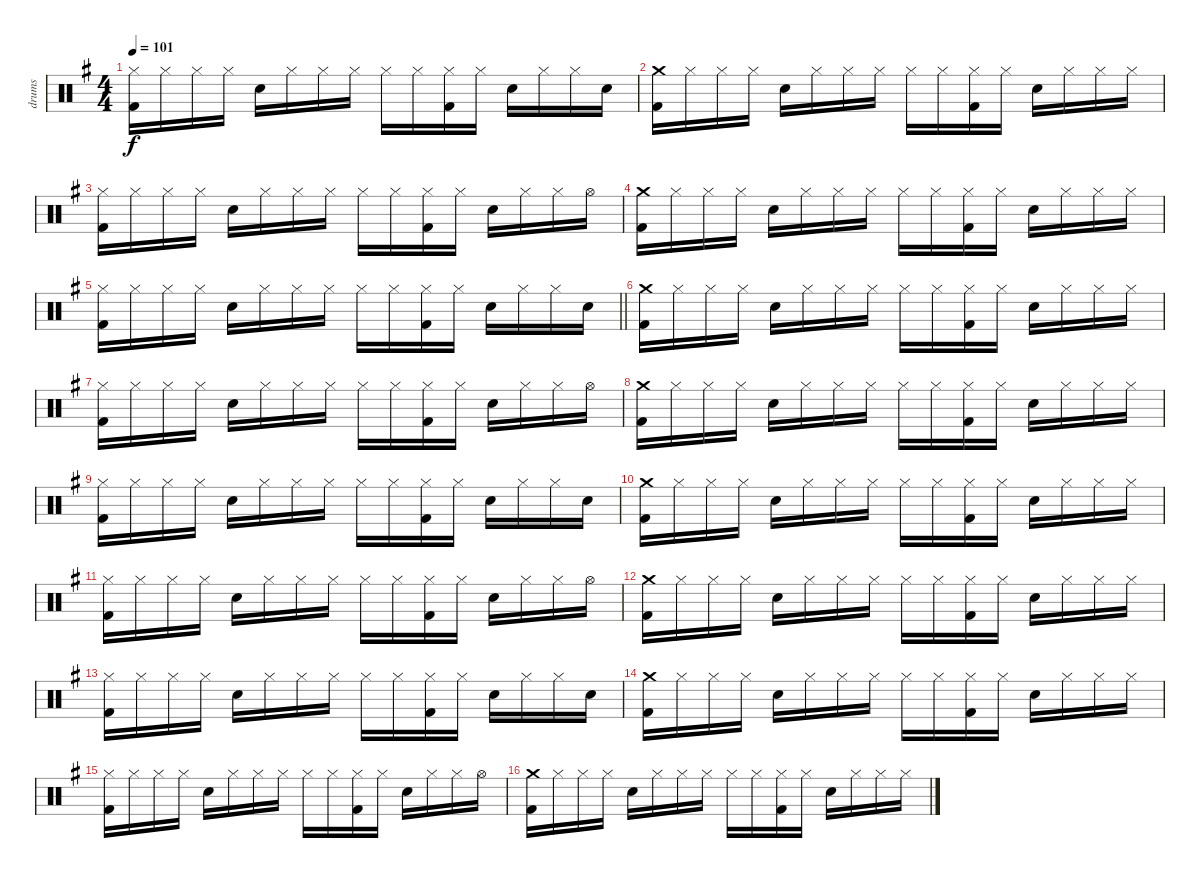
\track ("drums" "drums") {instrument percussion}
\staff {score}
\articulation defaults
\ts (4 4)
\tempo 101
\clef neutral
\ks eminor
("Hi-Hat (closed)" "Kick (hit) 2").16{dy f} "Hi-Hat (closed)".16 "Hi-Hat (closed)".16 "Hi-Hat (closed)".16 "Snare (hit) 2".16 "Hi-Hat (closed)".16 "Hi-Hat (closed)".16 "Hi-Hat (closed)".16 "Hi-Hat (closed)".16 "Hi-Hat (closed)".16 ("Hi-Hat (closed)" "Kick (hit) 2").16 "Hi-Hat (closed)".16 "Snare (hit) 2".16 "Hi-Hat (closed)".16 "Hi-Hat (closed)".16 "Snare (hit) 2".16 |
("Crash medium (hit)" "Kick (hit) 2").16 "Hi-Hat (closed)".16 "Hi-Hat (closed)".16 "Hi-Hat (closed)".16 "Snare (hit) 2".16 "Hi-Hat (closed)".16 "Hi-Hat (closed)".16 "Hi-Hat (closed)".16 "Hi-Hat (closed)".16 "Hi-Hat (closed)".16 ("Hi-Hat (closed)" "Kick (hit) 2").16 "Hi-Hat (closed)".16 "Snare (hit) 2".16 "Hi-Hat (closed)".16 "Hi-Hat (closed)".16 "Hi-Hat (closed)".16 |
("Hi-Hat (closed)" "Kick (hit) 2").16 "Hi-Hat (closed)".16 "Hi-Hat (closed)".16 "Hi-Hat (closed)".16 "Snare (hit) 2".16 "Hi-Hat (closed)".16 "Hi-Hat (closed)".16 "Hi-Hat (closed)".16 "Hi-Hat (closed)".16 "Hi-Hat (closed)".16 ("Hi-Hat (closed)" "Kick (hit) 2").16 "Hi-Hat (closed)".16 "Snare (hit) 2".16 "Hi-Hat (closed)".16 "Hi-Hat (closed)".16 "Hi-Hat (open)".16 |
("Crash medium (hit)" "Kick (hit) 2").16 "Hi-Hat (closed)".16 "Hi-Hat (closed)".16 "Hi-Hat (closed)".16 "Snare (hit) 2".16 "Hi-Hat (closed)".16 "Hi-Hat (closed)".16 "Hi-Hat (closed)".16 "Hi-Hat (closed)".16 "Hi-Hat (closed)".16 ("Hi-Hat (closed)" "Kick (hit) 2").16 "Hi-Hat (closed)".16 "Snare (hit) 2".16 "Hi-Hat (closed)".16 "Hi-Hat (closed)".16 "Hi-Hat (closed)".16 |
\barLineRight lightlight
("Hi-Hat (closed)" "Kick (hit) 2").16 "Hi-Hat (closed)".16 "Hi-Hat (closed)".16 "Hi-Hat (closed)".16 "Snare (hit) 2".16 "Hi-Hat (closed)".16 "Hi-Hat (closed)".16 "Hi-Hat (closed)".16 "Hi-Hat (closed)".16 "Hi-Hat (closed)".16 ("Hi-Hat (closed)" "Kick (hit) 2").16 "Hi-Hat (closed)".16 "Snare (hit) 2".16 "Hi-Hat (closed)".16 "Hi-Hat (closed)".16 "Snare (hit) 2".16 |
("Crash medium (hit)" "Kick (hit) 2").16 "Hi-Hat (closed)".16 "Hi-Hat (closed)".16 "Hi-Hat (closed)".16 "Snare (hit) 2".16 "Hi-Hat (closed)".16 "Hi-Hat (closed)".16 "Hi-Hat (closed)".16 "Hi-Hat (closed)".16 "Hi-Hat (closed)".16 ("Hi-Hat (closed)" "Kick (hit) 2").16 "Hi-Hat (closed)".16 "Snare (hit) 2".16 "Hi-Hat (closed)".16 "Hi-Hat (closed)".16 "Hi-Hat (closed)".16 |
("Hi-Hat (closed)" "Kick (hit) 2").16 "Hi-Hat (closed)".16 "Hi-Hat (closed)".16 "Hi-Hat (closed)".16 "Snare (hit) 2".16 "Hi-Hat (closed)".16 "Hi-Hat (closed)".16 "Hi-Hat (closed)".16 "Hi-Hat (closed)".16 "Hi-Hat (closed)".16 ("Hi-Hat (closed)" "Kick (hit) 2").16 "Hi-Hat (closed)".16 "Snare (hit) 2".16 "Hi-Hat (closed)".16 "Hi-Hat (closed)".16 "Hi-Hat (open)".16 |
("Crash medium (hit)" "Kick (hit) 2").16 "Hi-Hat (closed)".16 "Hi-Hat (closed)".16 "Hi-Hat (closed)".16 "Snare (hit) 2".16 "Hi-Hat (closed)".16 "Hi-Hat (closed)".16 "Hi-Hat (closed)".16 "Hi-Hat (closed)".16 "Hi-Hat (closed)".16 ("Hi-Hat (closed)" "Kick (hit) 2").16 "Hi-Hat (closed)".16 "Snare (hit) 2".16 "Hi-Hat (closed)".16 "Hi-Hat (closed)".16 "Hi-Hat (closed)".16 |
("Hi-Hat (closed)" "Kick (hit) 2").16 "Hi-Hat (closed)".16 "Hi-Hat (closed)".16 "Hi-Hat (closed)".16 "Snare (hit) 2".16 "Hi-Hat (closed)".16 "Hi-Hat (closed)".16 "Hi-Hat (closed)".16 "Hi-Hat (closed)".16 "Hi-Hat (closed)".16 ("Hi-Hat (closed)" "Kick (hit) 2").16 "Hi-Hat (closed)".16 "Snare (hit) 2".16 "Hi-Hat (closed)".16 "Hi-Hat (closed)".16 "Snare (hit) 2".16 |
("Crash medium (hit)" "Kick (hit) 2").16 "Hi-Hat (closed)".16 "Hi-Hat (closed)".16 "Hi-Hat (closed)".16 "Snare (hit) 2".16 "Hi-Hat (closed)".16 "Hi-Hat (closed)".16 "Hi-Hat (closed)".16 "Hi-Hat (closed)".16 "Hi-Hat (closed)".16 ("Hi-Hat (closed)" "Kick (hit) 2").16 "Hi-Hat (closed)".16 "Snare (hit) 2".16 "Hi-Hat (closed)".16 "Hi-Hat (closed)".16 "Hi-Hat (closed)".16 |
("Hi-Hat (closed)" "Kick (hit) 2").16 "Hi-Hat (closed)".16 "Hi-Hat (closed)".16 "Hi-Hat (closed)".16 "Snare (hit) 2".16 "Hi-Hat (closed)".16 "Hi-Hat (closed)".16 "Hi-Hat (closed)".16 "Hi-Hat (closed)".16 "Hi-Hat (closed)".16 ("Hi-Hat (closed)" "Kick (hit) 2").16 "Hi-Hat (closed)".16 "Snare (hit) 2".16 "Hi-Hat (closed)".16 "Hi-Hat (closed)".16 "Hi-Hat (open)".16 |
("Crash medium (hit)" "Kick (hit) 2").16 "Hi-Hat (closed)".16 "Hi-Hat (closed)".16 "Hi-Hat (closed)".16 "Snare (hit) 2".16 "Hi-Hat (closed)".16 "Hi-Hat (closed)".16 "Hi-Hat (closed)".16 "Hi-Hat (closed)".16 "Hi-Hat (closed)".16 ("Hi-Hat (closed)" "Kick (hit) 2").16 "Hi-Hat (closed)".16 "Snare (hit) 2".16 "Hi-Hat (closed)".16 "Hi-Hat (closed)".16 "Hi-Hat (closed)".16 |
("Hi-Hat (closed)" "Kick (hit) 2").16 "Hi-Hat (closed)".16 "Hi-Hat (closed)".16 "Hi-Hat (closed)".16 "Snare (hit) 2".16 "Hi-Hat (closed)".16 "Hi-Hat (closed)".16 "Hi-Hat (closed)".16 "Hi-Hat (closed)".16 "Hi-Hat (closed)".16 ("Hi-Hat (closed)" "Kick (hit) 2").16 "Hi-Hat (closed)".16 "Snare (hit) 2".16 "Hi-Hat (closed)".16 "Hi-Hat (closed)".16 "Snare (hit) 2".16 |
("Crash medium (hit)" "Kick (hit) 2").16 "Hi-Hat (closed)".16 "Hi-Hat (closed)".16 "Hi-Hat (closed)".16 "Snare (hit) 2".16 "Hi-Hat (closed)".16 "Hi-Hat (closed)".16 "Hi-Hat (closed)".16 "Hi-Hat (closed)".16 "Hi-Hat (closed)".16 ("Hi-Hat (closed)" "Kick (hit) 2").16 "Hi-Hat (closed)".16 "Snare (hit) 2".16 "Hi-Hat (closed)".16 "Hi-Hat (closed)".16 "Hi-Hat (closed)".16 |
("Hi-Hat (closed)" "Kick (hit) 2").16 "Hi-Hat (closed)".16 "Hi-Hat (closed)".16 "Hi-Hat (closed)".16 "Snare (hit) 2".16 "Hi-Hat (closed)".16 "Hi-Hat (closed)".16 "Hi-Hat (closed)".16 "Hi-Hat (closed)".16 "Hi-Hat (closed)".16 ("Hi-Hat (closed)" "Kick (hit) 2").16 "Hi-Hat (closed)".16 "Snare (hit) 2".16 "Hi-Hat (closed)".16 "Hi-Hat (closed)".16 "Hi-Hat (open)".16 |
("Crash medium (hit)" "Kick (hit) 2").16 "Hi-Hat (closed)".16 "Hi-Hat (closed)".16 "Hi-Hat (closed)".16 "Snare (hit) 2".16 "Hi-Hat (closed)".16 "Hi-Hat (closed)".16 "Hi-Hat (closed)".16 "Hi-Hat (closed)".16 "Hi-Hat (closed)".16 ("Hi-Hat (closed)" "Kick (hit) 2").16 "Hi-Hat (closed)".16 "Snare (hit) 2".16 "Hi-Hat (closed)".16 "Hi-Hat (closed)".16 "Hi-Hat (closed)".16
